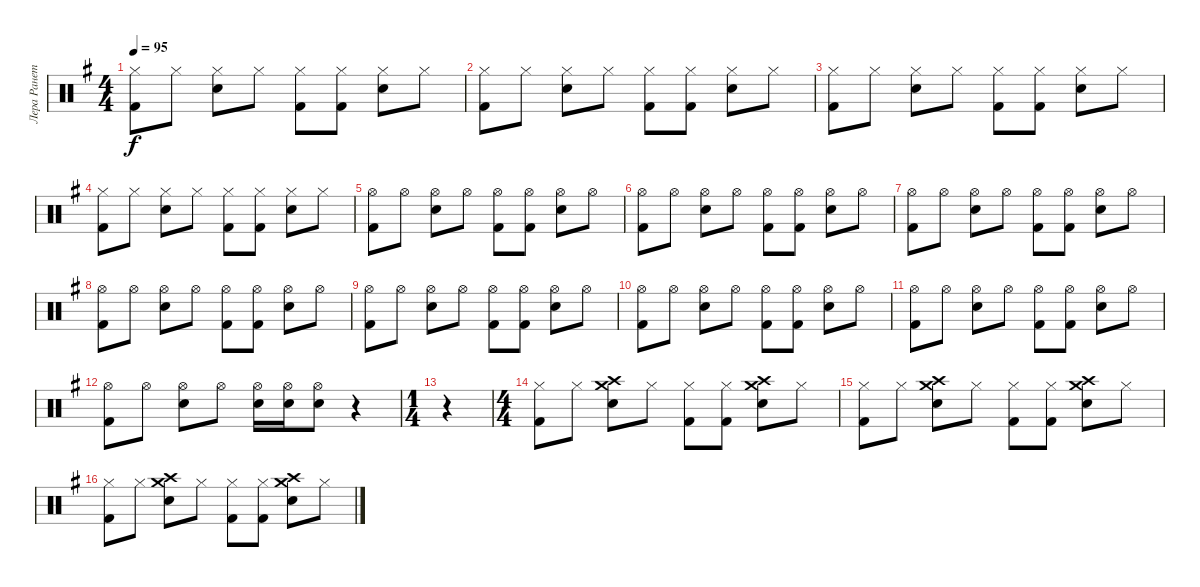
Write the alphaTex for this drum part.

\track ("Лера Ранетка" "Лера Ранет") {instrument percussion}
\staff {score}
\articulation defaults
\ts (4 4)
\tempo 95
\clef neutral
\ks eminor
("Hi-Hat (closed)" "Kick (hit) 2").8{dy f} "Hi-Hat (closed)".8 ("Hi-Hat (closed)" "Electric Snare (hit)").8 "Hi-Hat (closed)".8 ("Hi-Hat (closed)" "Kick (hit) 2").8 ("Hi-Hat (closed)" "Kick (hit) 2").8 ("Hi-Hat (closed)" "Electric Snare (hit)").8 "Hi-Hat (closed)".8 |
("Hi-Hat (closed)" "Kick (hit) 2").8 "Hi-Hat (closed)".8 ("Hi-Hat (closed)" "Electric Snare (hit)").8 "Hi-Hat (closed)".8 ("Hi-Hat (closed)" "Kick (hit) 2").8 ("Hi-Hat (closed)" "Kick (hit) 2").8 ("Hi-Hat (closed)" "Electric Snare (hit)").8 "Hi-Hat (closed)".8 |
("Hi-Hat (closed)" "Kick (hit) 2").8 "Hi-Hat (closed)".8 ("Hi-Hat (closed)" "Electric Snare (hit)").8 "Hi-Hat (closed)".8 ("Hi-Hat (closed)" "Kick (hit) 2").8 ("Hi-Hat (closed)" "Kick (hit) 2").8 ("Hi-Hat (closed)" "Electric Snare (hit)").8 "Hi-Hat (closed)".8 |
("Hi-Hat (closed)" "Kick (hit) 2").8 "Hi-Hat (closed)".8 ("Hi-Hat (closed)" "Electric Snare (hit)").8 "Hi-Hat (closed)".8 ("Hi-Hat (closed)" "Kick (hit) 2").8 ("Hi-Hat (closed)" "Kick (hit) 2").8 ("Hi-Hat (closed)" "Electric Snare (hit)").8 "Hi-Hat (closed)".8 |
("Hi-Hat (open)" "Kick (hit) 2").8 "Hi-Hat (open)".8 ("Hi-Hat (open)" "Electric Snare (hit)").8 "Hi-Hat (open)".8 ("Hi-Hat (open)" "Kick (hit) 2").8 ("Hi-Hat (open)" "Kick (hit) 2").8 ("Hi-Hat (open)" "Electric Snare (hit)").8 "Hi-Hat (open)".8 |
("Hi-Hat (open)" "Kick (hit) 2").8 "Hi-Hat (open)".8 ("Hi-Hat (open)" "Electric Snare (hit)").8 "Hi-Hat (open)".8 ("Hi-Hat (open)" "Kick (hit) 2").8 ("Hi-Hat (open)" "Kick (hit) 2").8 ("Hi-Hat (open)" "Electric Snare (hit)").8 "Hi-Hat (open)".8 |
("Hi-Hat (open)" "Kick (hit) 2").8 "Hi-Hat (open)".8 ("Hi-Hat (open)" "Electric Snare (hit)").8 "Hi-Hat (open)".8 ("Hi-Hat (open)" "Kick (hit) 2").8 ("Hi-Hat (open)" "Kick (hit) 2").8 ("Hi-Hat (open)" "Electric Snare (hit)").8 "Hi-Hat (open)".8 |
("Hi-Hat (open)" "Kick (hit) 2").8 "Hi-Hat (open)".8 ("Hi-Hat (open)" "Electric Snare (hit)").8 "Hi-Hat (open)".8 ("Hi-Hat (open)" "Kick (hit) 2").8 ("Hi-Hat (open)" "Kick (hit) 2").8 ("Hi-Hat (open)" "Electric Snare (hit)").8 "Hi-Hat (open)".8 |
("Hi-Hat (open)" "Kick (hit) 2").8 "Hi-Hat (open)".8 ("Hi-Hat (open)" "Electric Snare (hit)").8 "Hi-Hat (open)".8 ("Hi-Hat (open)" "Kick (hit) 2").8 ("Hi-Hat (open)" "Kick (hit) 2").8 ("Hi-Hat (open)" "Electric Snare (hit)").8 "Hi-Hat (open)".8 |
("Hi-Hat (open)" "Kick (hit) 2").8 "Hi-Hat (open)".8 ("Hi-Hat (open)" "Electric Snare (hit)").8 "Hi-Hat (open)".8 ("Hi-Hat (open)" "Kick (hit) 2").8 ("Hi-Hat (open)" "Kick (hit) 2").8 ("Hi-Hat (open)" "Electric Snare (hit)").8 "Hi-Hat (open)".8 |
("Hi-Hat (open)" "Kick (hit) 2").8 "Hi-Hat (open)".8 ("Hi-Hat (open)" "Electric Snare (hit)").8 "Hi-Hat (open)".8 ("Hi-Hat (open)" "Kick (hit) 2").8 ("Hi-Hat (open)" "Kick (hit) 2").8 ("Hi-Hat (open)" "Electric Snare (hit)").8 "Hi-Hat (open)".8 |
("Hi-Hat (open)" "Kick (hit) 2").8 "Hi-Hat (open)".8 ("Hi-Hat (open)" "Electric Snare (hit)").8 "Hi-Hat (open)".8 ("Hi-Hat (open)" "Electric Snare (hit)").16 ("Hi-Hat (open)" "Electric Snare (hit)").16 ("Hi-Hat (open)" "Electric Snare (hit)").8 r.4 |
\ts (1 4)
r.4 |
\ts (4 4)
("Hi-Hat (closed)" "Kick (hit) 2").8 "Hi-Hat (closed)".8 ("Crash medium (hit)" "Crash high (hit)" "Electric Snare (hit)").8 "Hi-Hat (closed)".8 ("Hi-Hat (closed)" "Kick (hit) 2").8 ("Hi-Hat (closed)" "Kick (hit) 2").8 ("Crash medium (hit)" "Crash high (hit)" "Electric Snare (hit)").8 "Hi-Hat (closed)".8 |
("Hi-Hat (closed)" "Kick (hit) 2").8 "Hi-Hat (closed)".8 ("Crash medium (hit)" "Crash high (hit)" "Electric Snare (hit)").8 "Hi-Hat (closed)".8 ("Hi-Hat (closed)" "Kick (hit) 2").8 ("Hi-Hat (closed)" "Kick (hit) 2").8 ("Crash medium (hit)" "Crash high (hit)" "Electric Snare (hit)").8 "Hi-Hat (closed)".8 |
("Hi-Hat (closed)" "Kick (hit) 2").8 "Hi-Hat (closed)".8 ("Crash medium (hit)" "Crash high (hit)" "Electric Snare (hit)").8 "Hi-Hat (closed)".8 ("Hi-Hat (closed)" "Kick (hit) 2").8 ("Hi-Hat (closed)" "Kick (hit) 2").8 ("Crash medium (hit)" "Crash high (hit)" "Electric Snare (hit)").8 "Hi-Hat (closed)".8
